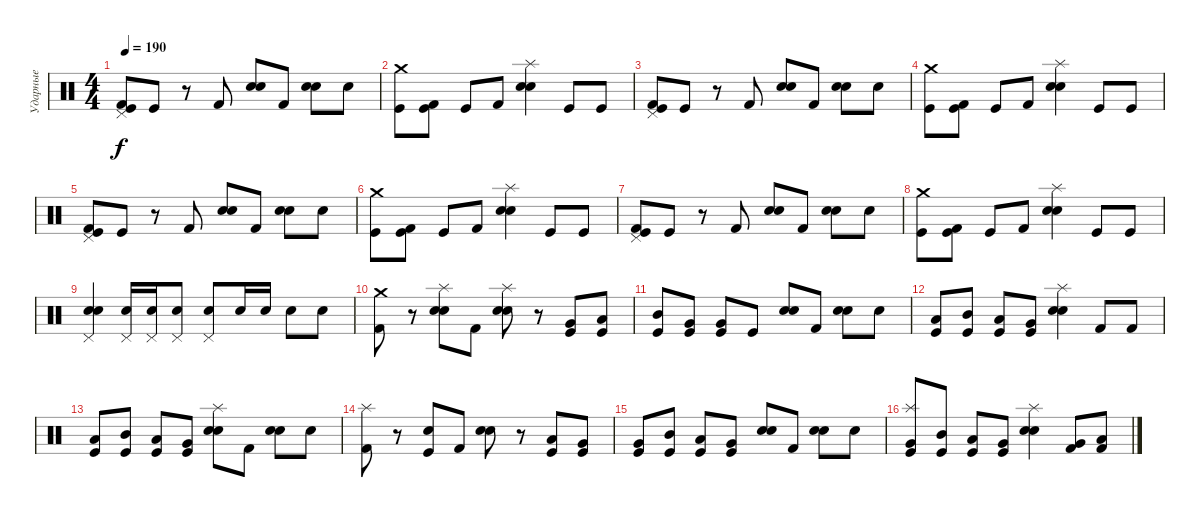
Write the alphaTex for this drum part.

\track ("Ударные" "Ударные") {instrument percussion}
\staff {score}
\articulation defaults
\ts (4 4)
\tempo 190
\clef neutral
\ks c
("Pedal Hi-Hat (hit)" "Kick (hit) 2" "Kick (hit)").8{dy f} "Kick (hit)".8 r.8 "Kick (hit) 2".8 ("Electric Snare (hit)" "Snare (hit) 2").8 "Kick (hit) 2".8 ("Electric Snare (hit)" "Snare (hit) 2").8 "Electric Snare (hit)".8 |
("Crash medium (hit)" "Kick (hit)").8 ("Kick (hit) 2" "Kick (hit)").8 "Kick (hit)".8 "Kick (hit) 2".8 ("Splash (hit)" "Electric Snare (hit)" "Snare (hit) 2").4 "Kick (hit)".8 "Kick (hit)".8 |
("Pedal Hi-Hat (hit)" "Kick (hit) 2" "Kick (hit)").8 "Kick (hit)".8 r.8 "Kick (hit) 2".8 ("Electric Snare (hit)" "Snare (hit) 2").8 "Kick (hit) 2".8 ("Electric Snare (hit)" "Snare (hit) 2").8 "Electric Snare (hit)".8 |
("Crash medium (hit)" "Kick (hit)").8 ("Kick (hit) 2" "Kick (hit)").8 "Kick (hit)".8 "Kick (hit) 2".8 ("Splash (hit)" "Electric Snare (hit)" "Snare (hit) 2").4 "Kick (hit)".8 "Kick (hit)".8 |
("Pedal Hi-Hat (hit)" "Kick (hit) 2" "Kick (hit)").8 "Kick (hit)".8 r.8 "Kick (hit) 2".8 ("Electric Snare (hit)" "Snare (hit) 2").8 "Kick (hit) 2".8 ("Electric Snare (hit)" "Snare (hit) 2").8 "Electric Snare (hit)".8 |
("Crash medium (hit)" "Kick (hit)").8 ("Kick (hit) 2" "Kick (hit)").8 "Kick (hit)".8 "Kick (hit) 2".8 ("Splash (hit)" "Electric Snare (hit)" "Snare (hit) 2").4 "Kick (hit)".8 "Kick (hit)".8 |
("Pedal Hi-Hat (hit)" "Kick (hit) 2" "Kick (hit)").8 "Kick (hit)".8 r.8 "Kick (hit) 2".8 ("Electric Snare (hit)" "Snare (hit) 2").8 "Kick (hit) 2".8 ("Electric Snare (hit)" "Snare (hit) 2").8 "Electric Snare (hit)".8 |
("Crash medium (hit)" "Kick (hit)").8 ("Kick (hit) 2" "Kick (hit)").8 "Kick (hit)".8 "Kick (hit) 2".8 ("Splash (hit)" "Electric Snare (hit)" "Snare (hit) 2").4 "Kick (hit)".8 "Kick (hit)".8 |
("Pedal Hi-Hat (hit)" "Electric Snare (hit)" "Snare (hit) 2").4 ("Pedal Hi-Hat (hit)" "Electric Snare (hit)").16 ("Pedal Hi-Hat (hit)" "Electric Snare (hit)").16 ("Pedal Hi-Hat (hit)" "Electric Snare (hit)").8 ("Pedal Hi-Hat (hit)" "Electric Snare (hit)").8 "Electric Snare (hit)".16 "Electric Snare (hit)".16 "Electric Snare (hit)".8 "Electric Snare (hit)".8 |
("Crash medium (hit)" "Kick (hit) 2").8 r.8 ("Splash (hit)" "Electric Snare (hit)" "Snare (hit) 2").8 "Kick (hit) 2".8 ("Splash (hit)" "Electric Snare (hit)" "Snare (hit) 2").8 r.8 ("Very Low Tom (hit)" "Kick (hit)").8 ("Low Tom (hit)" "Kick (hit)").8 |
("Mid Tom (hit)" "Kick (hit)").8 ("Very Low Tom (hit)" "Kick (hit)").8 ("Very Low Tom (hit)" "Kick (hit)").8 "Kick (hit)".8 ("Electric Snare (hit)" "Snare (hit) 2").8 "Kick (hit) 2".8 ("Electric Snare (hit)" "Snare (hit) 2").8 "Electric Snare (hit)".8 |
("Low Tom (hit)" "Kick (hit)").8 ("Mid Tom (hit)" "Kick (hit)").8 ("Low Tom (hit)" "Kick (hit)").8 ("Very Low Tom (hit)" "Kick (hit)").8 ("Splash (hit)" "Electric Snare (hit)" "Snare (hit) 2").4 "Kick (hit) 2".8 "Kick (hit) 2".8 |
("Low Tom (hit)" "Kick (hit)").8 ("Mid Tom (hit)" "Kick (hit)").8 ("Low Tom (hit)" "Kick (hit)").8 ("Very Low Tom (hit)" "Kick (hit)").8 ("Splash (hit)" "Electric Snare (hit)" "Snare (hit) 2").8 "Kick (hit) 2".8 ("Electric Snare (hit)" "Snare (hit) 2").8 "Electric Snare (hit)".8 |
("Splash (hit)" "Kick (hit) 2").8 r.8 ("Snare (hit) 2" "Kick (hit)").8 "Kick (hit) 2".8 ("Electric Snare (hit)" "Snare (hit) 2").8 r.8 ("Low Tom (hit)" "Kick (hit)").8 ("Very Low Tom (hit)" "Kick (hit)").8 |
("Very Low Tom (hit)" "Kick (hit)").8 ("Mid Tom (hit)" "Kick (hit)").8 ("Low Tom (hit)" "Kick (hit)").8 ("Very Low Tom (hit)" "Kick (hit)").8 ("Electric Snare (hit)" "Snare (hit) 2").8 "Kick (hit) 2".8 ("Electric Snare (hit)" "Snare (hit) 2").8 "Electric Snare (hit)".8 |
("Splash (hit)" "Very Low Tom (hit)" "Kick (hit)").8 ("Mid Tom (hit)" "Kick (hit)").8 ("Low Tom (hit)" "Kick (hit)").8 ("Very Low Tom (hit)" "Kick (hit)").8 ("Splash (hit)" "Electric Snare (hit)" "Snare (hit) 2").4 ("Very Low Tom (hit)" "Kick (hit) 2").8 ("Low Tom (hit)" "Kick (hit) 2").8
